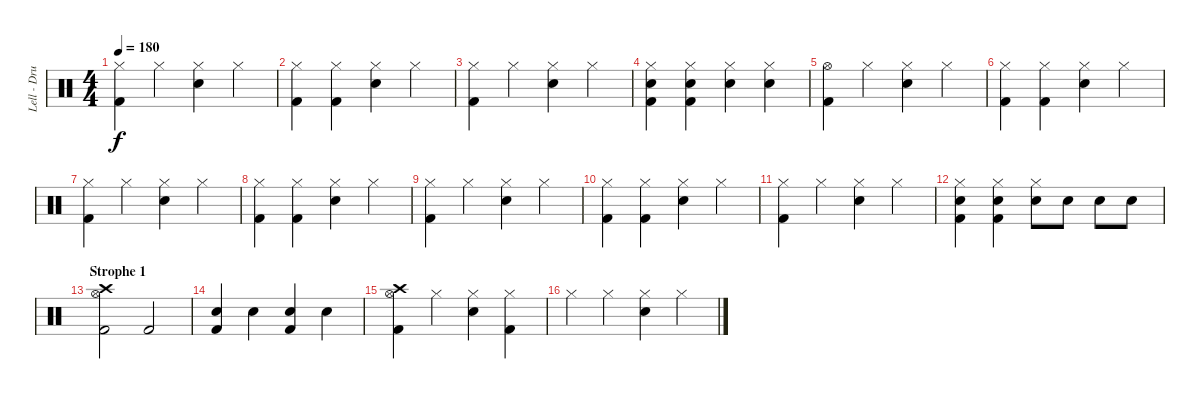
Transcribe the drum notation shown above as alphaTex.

\track ("Lell - Drums" "Lell - Dru") {instrument percussion}
\staff {score}
\articulation defaults
\ts (4 4)
\tempo 180
\clef neutral
\ks c
("Hi-Hat (closed)" "Kick (hit) 2").4{dy f} "Hi-Hat (closed)".4 ("Hi-Hat (closed)" "Snare (hit) 2").4 "Hi-Hat (closed)".4 |
("Hi-Hat (closed)" "Kick (hit) 2").4 ("Hi-Hat (closed)" "Kick (hit) 2").4 ("Hi-Hat (closed)" "Snare (hit) 2").4 "Hi-Hat (closed)".4 |
("Hi-Hat (closed)" "Kick (hit) 2").4 "Hi-Hat (closed)".4 ("Hi-Hat (closed)" "Snare (hit) 2").4 "Hi-Hat (closed)".4 |
("Hi-Hat (closed)" "Snare (hit) 2" "Kick (hit) 2").4 ("Hi-Hat (closed)" "Snare (hit) 2" "Kick (hit) 2").4 ("Hi-Hat (closed)" "Snare (hit) 2").4 ("Hi-Hat (closed)" "Snare (hit) 2").4 |
("Hi-Hat (open)" "Kick (hit) 2").4 "Hi-Hat (closed)".4 ("Hi-Hat (closed)" "Snare (hit) 2").4 "Hi-Hat (closed)".4 |
("Hi-Hat (closed)" "Kick (hit) 2").4 ("Hi-Hat (closed)" "Kick (hit) 2").4 ("Hi-Hat (closed)" "Snare (hit) 2").4 "Hi-Hat (closed)".4 |
("Hi-Hat (closed)" "Kick (hit) 2").4 "Hi-Hat (closed)".4 ("Hi-Hat (closed)" "Snare (hit) 2").4 "Hi-Hat (closed)".4 |
("Hi-Hat (closed)" "Kick (hit) 2").4 ("Hi-Hat (closed)" "Kick (hit) 2").4 ("Hi-Hat (closed)" "Snare (hit) 2").4 "Hi-Hat (closed)".4 |
("Hi-Hat (closed)" "Kick (hit) 2").4 "Hi-Hat (closed)".4 ("Hi-Hat (closed)" "Snare (hit) 2").4 "Hi-Hat (closed)".4 |
("Hi-Hat (closed)" "Kick (hit) 2").4 ("Hi-Hat (closed)" "Kick (hit) 2").4 ("Hi-Hat (closed)" "Snare (hit) 2").4 "Hi-Hat (closed)".4 |
("Hi-Hat (closed)" "Kick (hit) 2").4 "Hi-Hat (closed)".4 ("Hi-Hat (closed)" "Snare (hit) 2").4 "Hi-Hat (closed)".4 |
("Hi-Hat (closed)" "Snare (hit) 2" "Kick (hit) 2").4 ("Hi-Hat (closed)" "Snare (hit) 2" "Kick (hit) 2").4 ("Hi-Hat (closed)" "Snare (hit) 2").8 "Snare (hit) 2".8 "Snare (hit) 2".8 "Snare (hit) 2".8 |
\section ("" "Strophe 1")
("Crash high (hit)" "Hi-Hat (open)" "Kick (hit) 2").2 "Kick (hit) 2".2 |
("Snare (hit) 2" "Kick (hit) 2").4 "Snare (hit) 2".4 ("Snare (hit) 2" "Kick (hit) 2").4 "Snare (hit) 2".4 |
("Crash high (hit)" "Hi-Hat (open)" "Kick (hit) 2").4 "Hi-Hat (closed)".4 ("Hi-Hat (closed)" "Snare (hit) 2").4 ("Hi-Hat (closed)" "Kick (hit) 2").4 |
"Hi-Hat (closed)".4 "Hi-Hat (closed)".4 ("Hi-Hat (closed)" "Snare (hit) 2").4 "Hi-Hat (closed)".4
